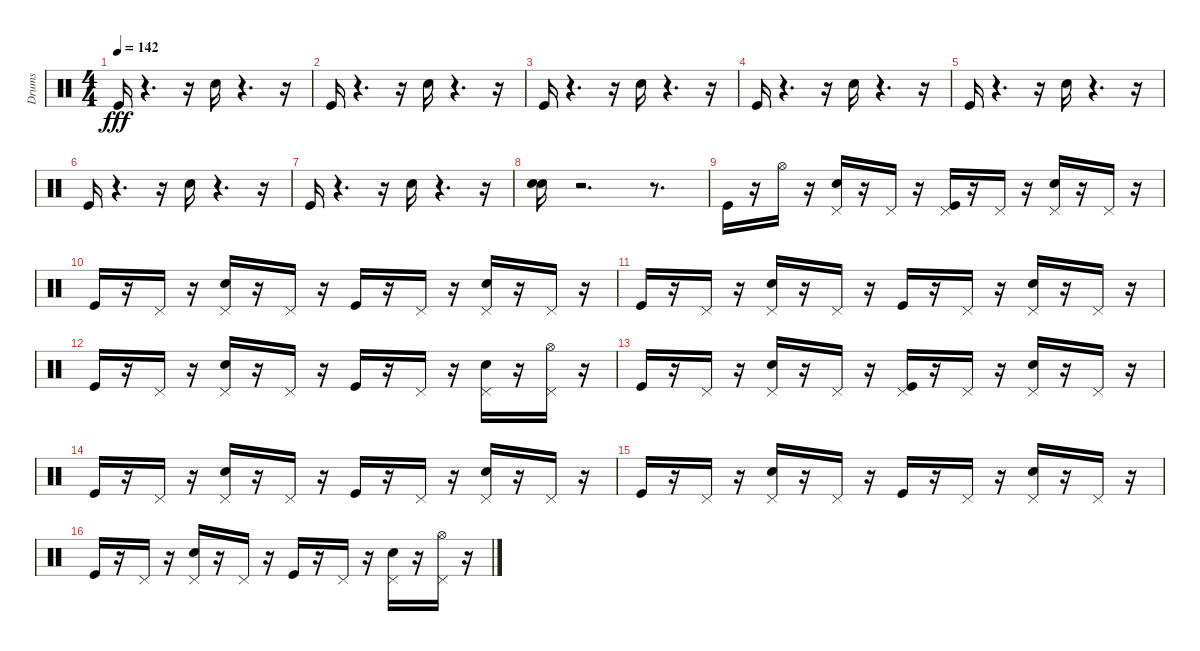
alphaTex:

\track ("Drums" "Drums") {instrument percussion}
\staff {score}
\articulation defaults
\ts (4 4)
\tempo 142
\clef neutral
\ks c "Kick (hit)".16{dy fff}
r.4{d} r.16 "Snare (hit) 2".16 r.4{d} r.16 |
"Kick (hit)".16 r.4{d} r.16 "Snare (hit) 2".16 r.4{d} r.16 |
"Kick (hit)".16 r.4{d} r.16 "Snare (hit) 2".16 r.4{d} r.16 |
"Kick (hit)".16 r.4{d} r.16 "Snare (hit) 2".16 r.4{d} r.16 |
"Kick (hit)".16 r.4{d} r.16 "Snare (hit) 2".16 r.4{d} r.16 |
"Kick (hit)".16 r.4{d} r.16 "Snare (hit) 2".16 r.4{d} r.16 |
"Kick (hit)".16 r.4{d} r.16 "Snare (hit) 2".16 r.4{d} r.16 |
("Snare (hit) 2" "Electric Snare (hit)").16 r.2{d} r.8{d} |
"Kick (hit)".16 r.16 "Hi-Hat (open)".16 r.16 ("Snare (hit) 2" "Pedal Hi-Hat (hit)").16 r.16 "Pedal Hi-Hat (hit)".16 r.16 ("Kick (hit)" "Pedal Hi-Hat (hit)").16 r.16 "Pedal Hi-Hat (hit)".16 r.16 ("Snare (hit) 2" "Pedal Hi-Hat (hit)").16 r.16 "Pedal Hi-Hat (hit)".16 r.16 |
"Kick (hit)".16 r.16 "Pedal Hi-Hat (hit)".16 r.16 ("Snare (hit) 2" "Pedal Hi-Hat (hit)").16 r.16 "Pedal Hi-Hat (hit)".16 r.16 "Kick (hit)".16 r.16 "Pedal Hi-Hat (hit)".16 r.16 ("Snare (hit) 2" "Pedal Hi-Hat (hit)").16 r.16 "Pedal Hi-Hat (hit)".16 r.16 |
"Kick (hit)".16 r.16 "Pedal Hi-Hat (hit)".16 r.16 ("Snare (hit) 2" "Pedal Hi-Hat (hit)").16 r.16 "Pedal Hi-Hat (hit)".16 r.16 "Kick (hit)".16 r.16 "Pedal Hi-Hat (hit)".16 r.16 ("Snare (hit) 2" "Pedal Hi-Hat (hit)").16 r.16 "Pedal Hi-Hat (hit)".16 r.16 |
"Kick (hit)".16 r.16 "Pedal Hi-Hat (hit)".16 r.16 ("Snare (hit) 2" "Pedal Hi-Hat (hit)").16 r.16 "Pedal Hi-Hat (hit)".16 r.16 "Kick (hit)".16 r.16 "Pedal Hi-Hat (hit)".16 r.16 ("Snare (hit) 2" "Pedal Hi-Hat (hit)").16 r.16 ("Pedal Hi-Hat (hit)" "Hi-Hat (open)").16 r.16 |
"Kick (hit)".16 r.16 "Pedal Hi-Hat (hit)".16 r.16 ("Snare (hit) 2" "Pedal Hi-Hat (hit)").16 r.16 "Pedal Hi-Hat (hit)".16 r.16 ("Kick (hit)" "Pedal Hi-Hat (hit)").16 r.16 "Pedal Hi-Hat (hit)".16 r.16 ("Snare (hit) 2" "Pedal Hi-Hat (hit)").16 r.16 "Pedal Hi-Hat (hit)".16 r.16 |
"Kick (hit)".16 r.16 "Pedal Hi-Hat (hit)".16 r.16 ("Snare (hit) 2" "Pedal Hi-Hat (hit)").16 r.16 "Pedal Hi-Hat (hit)".16 r.16 "Kick (hit)".16 r.16 "Pedal Hi-Hat (hit)".16 r.16 ("Snare (hit) 2" "Pedal Hi-Hat (hit)").16 r.16 "Pedal Hi-Hat (hit)".16 r.16 |
"Kick (hit)".16 r.16 "Pedal Hi-Hat (hit)".16 r.16 ("Snare (hit) 2" "Pedal Hi-Hat (hit)").16 r.16 "Pedal Hi-Hat (hit)".16 r.16 "Kick (hit)".16 r.16 "Pedal Hi-Hat (hit)".16 r.16 ("Snare (hit) 2" "Pedal Hi-Hat (hit)").16 r.16 "Pedal Hi-Hat (hit)".16 r.16 |
"Kick (hit)".16 r.16 "Pedal Hi-Hat (hit)".16 r.16 ("Snare (hit) 2" "Pedal Hi-Hat (hit)").16 r.16 "Pedal Hi-Hat (hit)".16 r.16 "Kick (hit)".16 r.16 "Pedal Hi-Hat (hit)".16 r.16 ("Snare (hit) 2" "Pedal Hi-Hat (hit)").16 r.16 ("Pedal Hi-Hat (hit)" "Hi-Hat (open)").16 r.16
